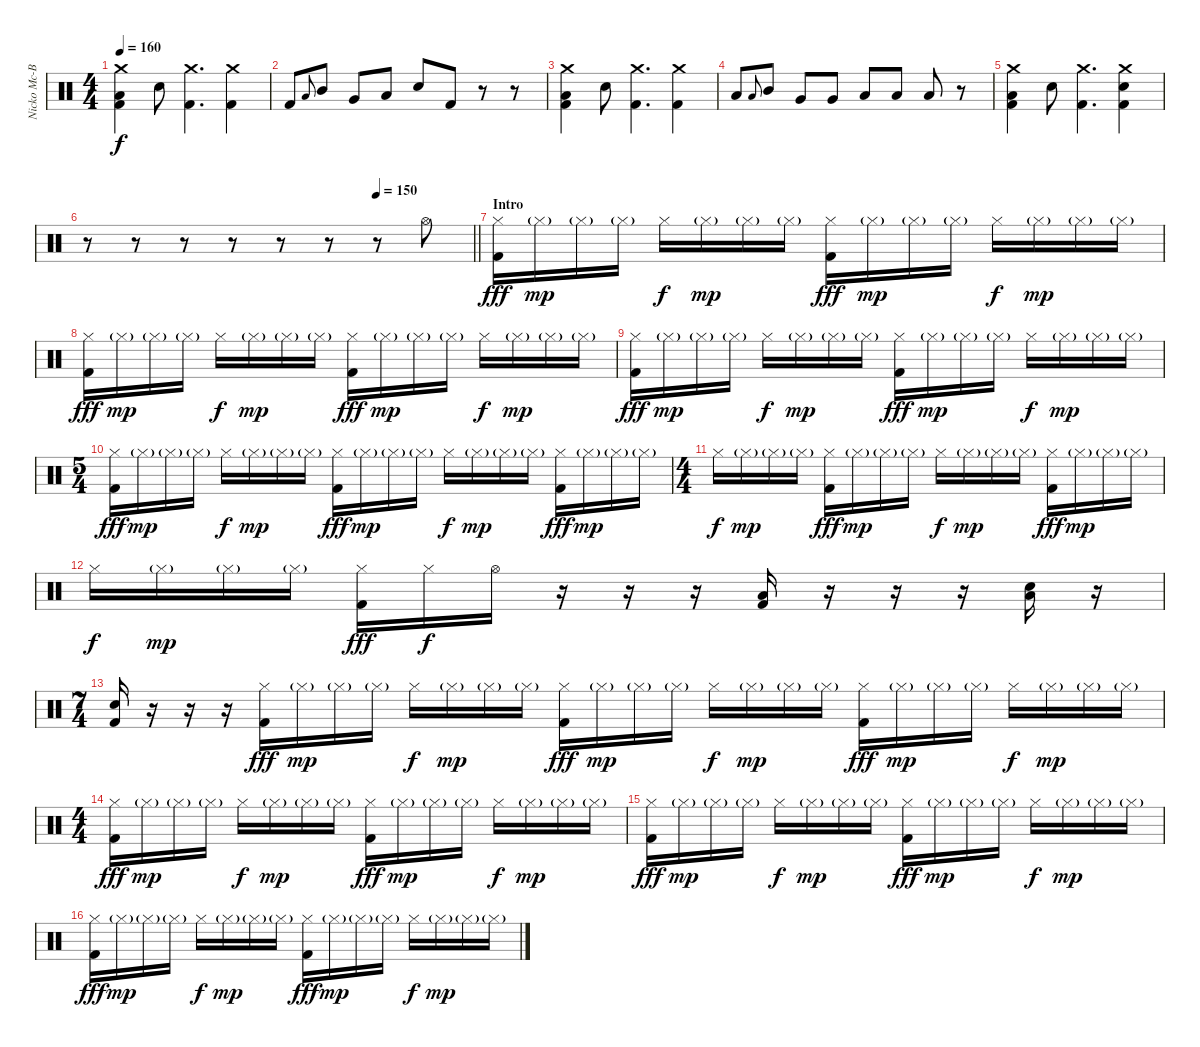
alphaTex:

\track ("Nicko Mc-Brain" "Nicko Mc-B") {instrument percussion}
\staff {score}
\articulation defaults
\ts (4 4)
\tempo 160
\clef neutral
\ks c
("Crash medium (hit)" "Low Floor Tom (hit)" "Kick (hit) 2").4{dy f} "Snare (hit) 2".8 ("Crash medium (hit)" "Kick (hit) 2").4{d} ("Crash medium (hit)" "Kick (hit) 2").4 |
"Kick (hit) 2".8 "Low Tom (hit)".8{gr onbeat} "Mid Tom (hit)".8 "Very Low Tom (hit)".8 "Low Tom (hit)".8 "Snare (hit) 2".8 "Kick (hit) 2".8 r.8 r.8 |
("Crash medium (hit)" "Low Floor Tom (hit)" "Kick (hit) 2").4 "Snare (hit) 2".8 ("Crash medium (hit)" "Kick (hit) 2").4{d} ("Crash medium (hit)" "Kick (hit) 2").4 |
"Low Floor Tom (hit)".8 "Low Tom (hit)".8{gr onbeat} "Mid Tom (hit)".8 "Very Low Tom (hit)".8 "Very Low Tom (hit)".8 "Low Tom (hit)".8 "Low Floor Tom (hit)".8 "Low Floor Tom (hit)".8 r.8 |
("Crash medium (hit)" "Low Floor Tom (hit)" "Kick (hit) 2").4 "Snare (hit) 2".8 ("Crash medium (hit)" "Kick (hit) 2").4{d} ("Crash medium (hit)" "Snare (hit) 2" "Kick (hit) 2").4 |
\tempo (150 0.75)
\barLineRight lightlight
r.8 r.8 r.8 r.8 r.8 r.8 r.8 "Hi-Hat (open)".8 |
\section ("" "Intro")
("Hi-Hat (closed)" "Kick (hit) 2").16{dy fff} "Hi-Hat (closed)"{g}.16{dy mp} "Hi-Hat (closed)"{g}.16 "Hi-Hat (closed)"{g}.16 "Hi-Hat (closed)".16{dy f} "Hi-Hat (closed)"{g}.16{dy mp} "Hi-Hat (closed)"{g}.16 "Hi-Hat (closed)"{g}.16 ("Hi-Hat (closed)" "Kick (hit) 2").16{dy fff} "Hi-Hat (closed)"{g}.16{dy mp} "Hi-Hat (closed)"{g}.16 "Hi-Hat (closed)"{g}.16 "Hi-Hat (closed)".16{dy f} "Hi-Hat (closed)"{g}.16{dy mp} "Hi-Hat (closed)"{g}.16 "Hi-Hat (closed)"{g}.16 |
("Hi-Hat (closed)" "Kick (hit) 2").16{dy fff} "Hi-Hat (closed)"{g}.16{dy mp} "Hi-Hat (closed)"{g}.16 "Hi-Hat (closed)"{g}.16 "Hi-Hat (closed)".16{dy f} "Hi-Hat (closed)"{g}.16{dy mp} "Hi-Hat (closed)"{g}.16 "Hi-Hat (closed)"{g}.16 ("Hi-Hat (closed)" "Kick (hit) 2").16{dy fff} "Hi-Hat (closed)"{g}.16{dy mp} "Hi-Hat (closed)"{g}.16 "Hi-Hat (closed)"{g}.16 "Hi-Hat (closed)".16{dy f} "Hi-Hat (closed)"{g}.16{dy mp} "Hi-Hat (closed)"{g}.16 "Hi-Hat (closed)"{g}.16 |
("Hi-Hat (closed)" "Kick (hit) 2").16{dy fff} "Hi-Hat (closed)"{g}.16{dy mp} "Hi-Hat (closed)"{g}.16 "Hi-Hat (closed)"{g}.16 "Hi-Hat (closed)".16{dy f} "Hi-Hat (closed)"{g}.16{dy mp} "Hi-Hat (closed)"{g}.16 "Hi-Hat (closed)"{g}.16 ("Hi-Hat (closed)" "Kick (hit) 2").16{dy fff} "Hi-Hat (closed)"{g}.16{dy mp} "Hi-Hat (closed)"{g}.16 "Hi-Hat (closed)"{g}.16 "Hi-Hat (closed)".16{dy f} "Hi-Hat (closed)"{g}.16{dy mp} "Hi-Hat (closed)"{g}.16 "Hi-Hat (closed)"{g}.16 |
\ts (5 4)
("Hi-Hat (closed)" "Kick (hit) 2").16{dy fff} "Hi-Hat (closed)"{g}.16{dy mp} "Hi-Hat (closed)"{g}.16 "Hi-Hat (closed)"{g}.16 "Hi-Hat (closed)".16{dy f} "Hi-Hat (closed)"{g}.16{dy mp} "Hi-Hat (closed)"{g}.16 "Hi-Hat (closed)"{g}.16 ("Hi-Hat (closed)" "Kick (hit) 2").16{dy fff} "Hi-Hat (closed)"{g}.16{dy mp} "Hi-Hat (closed)"{g}.16 "Hi-Hat (closed)"{g}.16 "Hi-Hat (closed)".16{dy f} "Hi-Hat (closed)"{g}.16{dy mp} "Hi-Hat (closed)"{g}.16 "Hi-Hat (closed)"{g}.16 ("Hi-Hat (closed)" "Kick (hit) 2").16{dy fff} "Hi-Hat (closed)"{g}.16{dy mp} "Hi-Hat (closed)"{g}.16 "Hi-Hat (closed)"{g}.16 |
\ts (4 4)
"Hi-Hat (closed)".16{dy f} "Hi-Hat (closed)"{g}.16{dy mp} "Hi-Hat (closed)"{g}.16 "Hi-Hat (closed)"{g}.16 ("Hi-Hat (closed)" "Kick (hit) 2").16{dy fff} "Hi-Hat (closed)"{g}.16{dy mp} "Hi-Hat (closed)"{g}.16 "Hi-Hat (closed)"{g}.16 "Hi-Hat (closed)".16{dy f} "Hi-Hat (closed)"{g}.16{dy mp} "Hi-Hat (closed)"{g}.16 "Hi-Hat (closed)"{g}.16 ("Hi-Hat (closed)" "Kick (hit) 2").16{dy fff} "Hi-Hat (closed)"{g}.16{dy mp} "Hi-Hat (closed)"{g}.16 "Hi-Hat (closed)"{g}.16 |
"Hi-Hat (closed)".16{dy f} "Hi-Hat (closed)"{g}.16{dy mp} "Hi-Hat (closed)"{g}.16 "Hi-Hat (closed)"{g}.16 ("Hi-Hat (closed)" "Kick (hit) 2").16{dy fff} "Hi-Hat (closed)".16{dy f} "Hi-Hat (open)".16 r.16 r.16 r.16 ("Low Floor Tom (hit)" "Kick (hit) 2").16 r.16 r.16 r.16 ("Low Floor Tom (hit)" "Snare (hit) 2").16 r.16 |
\ts (7 4)
("Snare (hit) 2" "Kick (hit) 2").16 r.16 r.16 r.16 ("Hi-Hat (closed)" "Kick (hit) 2").16{dy fff} "Hi-Hat (closed)"{g}.16{dy mp} "Hi-Hat (closed)"{g}.16 "Hi-Hat (closed)"{g}.16 "Hi-Hat (closed)".16{dy f} "Hi-Hat (closed)"{g}.16{dy mp} "Hi-Hat (closed)"{g}.16 "Hi-Hat (closed)"{g}.16 ("Hi-Hat (closed)" "Kick (hit) 2").16{dy fff} "Hi-Hat (closed)"{g}.16{dy mp} "Hi-Hat (closed)"{g}.16 "Hi-Hat (closed)"{g}.16 "Hi-Hat (closed)".16{dy f} "Hi-Hat (closed)"{g}.16{dy mp} "Hi-Hat (closed)"{g}.16 "Hi-Hat (closed)"{g}.16 ("Hi-Hat (closed)" "Kick (hit) 2").16{dy fff} "Hi-Hat (closed)"{g}.16{dy mp} "Hi-Hat (closed)"{g}.16 "Hi-Hat (closed)"{g}.16 "Hi-Hat (closed)".16{dy f} "Hi-Hat (closed)"{g}.16{dy mp} "Hi-Hat (closed)"{g}.16 "Hi-Hat (closed)"{g}.16 |
\ts (4 4)
("Hi-Hat (closed)" "Kick (hit) 2").16{dy fff} "Hi-Hat (closed)"{g}.16{dy mp} "Hi-Hat (closed)"{g}.16 "Hi-Hat (closed)"{g}.16 "Hi-Hat (closed)".16{dy f} "Hi-Hat (closed)"{g}.16{dy mp} "Hi-Hat (closed)"{g}.16 "Hi-Hat (closed)"{g}.16 ("Hi-Hat (closed)" "Kick (hit) 2").16{dy fff} "Hi-Hat (closed)"{g}.16{dy mp} "Hi-Hat (closed)"{g}.16 "Hi-Hat (closed)"{g}.16 "Hi-Hat (closed)".16{dy f} "Hi-Hat (closed)"{g}.16{dy mp} "Hi-Hat (closed)"{g}.16 "Hi-Hat (closed)"{g}.16 |
("Hi-Hat (closed)" "Kick (hit) 2").16{dy fff} "Hi-Hat (closed)"{g}.16{dy mp} "Hi-Hat (closed)"{g}.16 "Hi-Hat (closed)"{g}.16 "Hi-Hat (closed)".16{dy f} "Hi-Hat (closed)"{g}.16{dy mp} "Hi-Hat (closed)"{g}.16 "Hi-Hat (closed)"{g}.16 ("Hi-Hat (closed)" "Kick (hit) 2").16{dy fff} "Hi-Hat (closed)"{g}.16{dy mp} "Hi-Hat (closed)"{g}.16 "Hi-Hat (closed)"{g}.16 "Hi-Hat (closed)".16{dy f} "Hi-Hat (closed)"{g}.16{dy mp} "Hi-Hat (closed)"{g}.16 "Hi-Hat (closed)"{g}.16 |
("Hi-Hat (closed)" "Kick (hit) 2").16{dy fff} "Hi-Hat (closed)"{g}.16{dy mp} "Hi-Hat (closed)"{g}.16 "Hi-Hat (closed)"{g}.16 "Hi-Hat (closed)".16{dy f} "Hi-Hat (closed)"{g}.16{dy mp} "Hi-Hat (closed)"{g}.16 "Hi-Hat (closed)"{g}.16 ("Hi-Hat (closed)" "Kick (hit) 2").16{dy fff} "Hi-Hat (closed)"{g}.16{dy mp} "Hi-Hat (closed)"{g}.16 "Hi-Hat (closed)"{g}.16 "Hi-Hat (closed)".16{dy f} "Hi-Hat (closed)"{g}.16{dy mp} "Hi-Hat (closed)"{g}.16 "Hi-Hat (closed)"{g}.16
